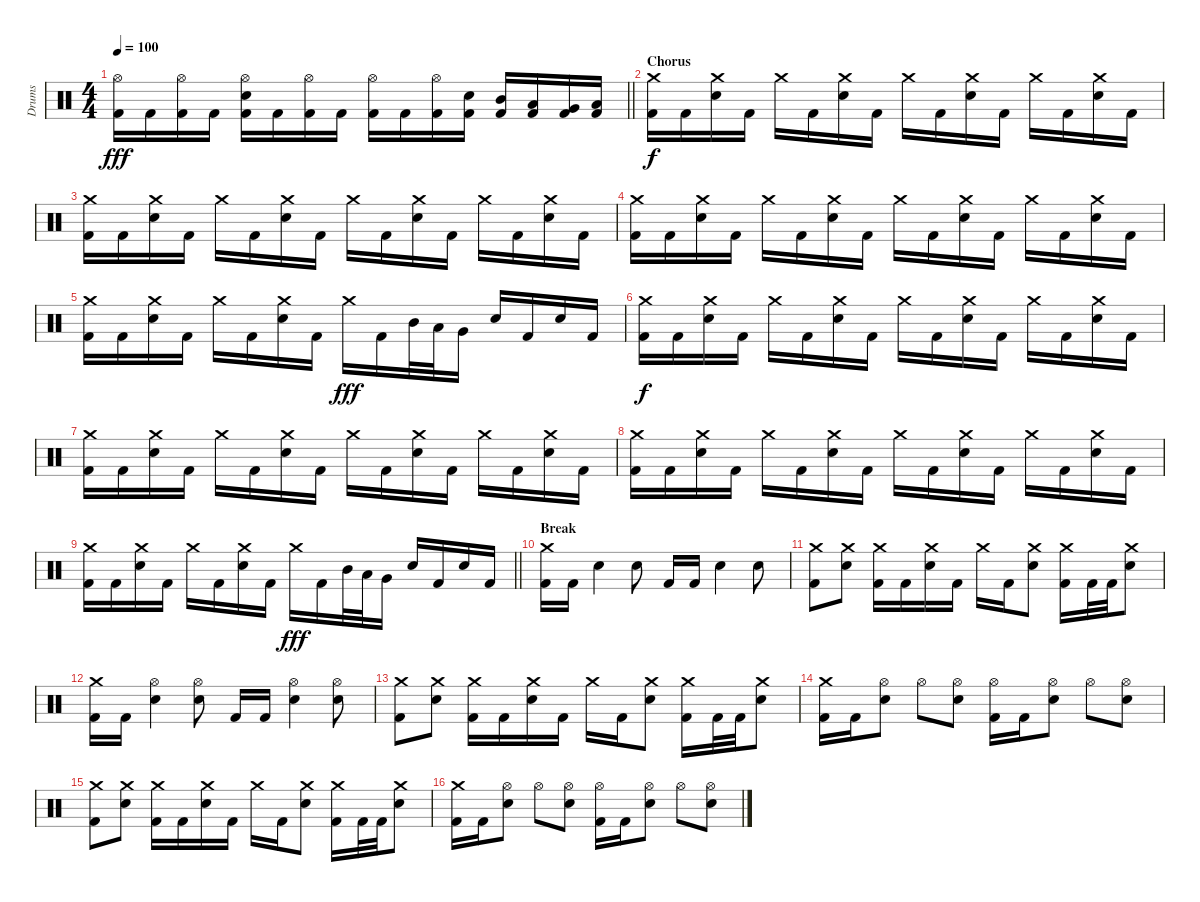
\track ("Drums" "Drums") {instrument percussion}
\staff {score}
\articulation defaults
\ts (4 4)
\tempo 100
\clef neutral
\barLineRight lightlight
\ks c
("Hi-Hat (open)" "Kick (hit) 2").16{dy fff} "Kick (hit) 2".16 ("Hi-Hat (open)" "Kick (hit) 2").16 "Kick (hit) 2".16 ("Hi-Hat (open)" "Electric Snare (hit)" "Kick (hit) 2").16 "Kick (hit) 2".16 ("Hi-Hat (open)" "Kick (hit) 2").16 "Kick (hit) 2".16 ("Hi-Hat (open)" "Kick (hit) 2").16 "Kick (hit) 2".16 ("Hi-Hat (open)" "Kick (hit) 2").16 ("Electric Snare (hit)" "Kick (hit) 2").16 ("Mid Tom (hit)" "Kick (hit) 2").16 ("Low Tom (hit)" "Kick (hit) 2").16 ("Very Low Tom (hit)" "Kick (hit) 2").16 ("Low Floor Tom (hit)" "Kick (hit) 2").16 |
\section ("" "Chorus")
("Crash medium (hit)" "Kick (hit) 2").16{dy f} "Kick (hit) 2".16 ("Crash medium (hit)" "Electric Snare (hit)").16 "Kick (hit) 2".16 "Crash medium (hit)".16 "Kick (hit) 2".16 ("Crash medium (hit)" "Electric Snare (hit)").16 "Kick (hit) 2".16 "Crash medium (hit)".16 "Kick (hit) 2".16 ("Crash medium (hit)" "Electric Snare (hit)").16 "Kick (hit) 2".16 "Crash medium (hit)".16 "Kick (hit) 2".16 ("Crash medium (hit)" "Electric Snare (hit)").16 "Kick (hit) 2".16 |
("Crash medium (hit)" "Kick (hit) 2").16 "Kick (hit) 2".16 ("Crash medium (hit)" "Electric Snare (hit)").16 "Kick (hit) 2".16 "Crash medium (hit)".16 "Kick (hit) 2".16 ("Crash medium (hit)" "Electric Snare (hit)").16 "Kick (hit) 2".16 "Crash medium (hit)".16 "Kick (hit) 2".16 ("Crash medium (hit)" "Electric Snare (hit)").16 "Kick (hit) 2".16 "Crash medium (hit)".16 "Kick (hit) 2".16 ("Crash medium (hit)" "Electric Snare (hit)").16 "Kick (hit) 2".16 |
("Crash medium (hit)" "Kick (hit) 2").16 "Kick (hit) 2".16 ("Crash medium (hit)" "Electric Snare (hit)").16 "Kick (hit) 2".16 "Crash medium (hit)".16 "Kick (hit) 2".16 ("Crash medium (hit)" "Electric Snare (hit)").16 "Kick (hit) 2".16 "Crash medium (hit)".16 "Kick (hit) 2".16 ("Crash medium (hit)" "Electric Snare (hit)").16 "Kick (hit) 2".16 "Crash medium (hit)".16 "Kick (hit) 2".16 ("Crash medium (hit)" "Electric Snare (hit)").16 "Kick (hit) 2".16 |
("Crash medium (hit)" "Kick (hit) 2").16 "Kick (hit) 2".16 ("Crash medium (hit)" "Electric Snare (hit)").16 "Kick (hit) 2".16 "Crash medium (hit)".16 "Kick (hit) 2".16 ("Crash medium (hit)" "Electric Snare (hit)").16 "Kick (hit) 2".16 "Crash medium (hit)".16{dy fff} "Kick (hit) 2".16 "Mid Tom (hit)".32 "Low Tom (hit)".32 "Very Low Tom (hit)".16 "Electric Snare (hit)".16 "Kick (hit) 2".16 "Electric Snare (hit)".16 "Kick (hit) 2".16 |
("Crash medium (hit)" "Kick (hit) 2").16{dy f} "Kick (hit) 2".16 ("Crash medium (hit)" "Electric Snare (hit)").16 "Kick (hit) 2".16 "Crash medium (hit)".16 "Kick (hit) 2".16 ("Crash medium (hit)" "Electric Snare (hit)").16 "Kick (hit) 2".16 "Crash medium (hit)".16 "Kick (hit) 2".16 ("Crash medium (hit)" "Electric Snare (hit)").16 "Kick (hit) 2".16 "Crash medium (hit)".16 "Kick (hit) 2".16 ("Crash medium (hit)" "Electric Snare (hit)").16 "Kick (hit) 2".16 |
("Crash medium (hit)" "Kick (hit) 2").16 "Kick (hit) 2".16 ("Crash medium (hit)" "Electric Snare (hit)").16 "Kick (hit) 2".16 "Crash medium (hit)".16 "Kick (hit) 2".16 ("Crash medium (hit)" "Electric Snare (hit)").16 "Kick (hit) 2".16 "Crash medium (hit)".16 "Kick (hit) 2".16 ("Crash medium (hit)" "Electric Snare (hit)").16 "Kick (hit) 2".16 "Crash medium (hit)".16 "Kick (hit) 2".16 ("Crash medium (hit)" "Electric Snare (hit)").16 "Kick (hit) 2".16 |
("Crash medium (hit)" "Kick (hit) 2").16 "Kick (hit) 2".16 ("Crash medium (hit)" "Electric Snare (hit)").16 "Kick (hit) 2".16 "Crash medium (hit)".16 "Kick (hit) 2".16 ("Crash medium (hit)" "Electric Snare (hit)").16 "Kick (hit) 2".16 "Crash medium (hit)".16 "Kick (hit) 2".16 ("Crash medium (hit)" "Electric Snare (hit)").16 "Kick (hit) 2".16 "Crash medium (hit)".16 "Kick (hit) 2".16 ("Crash medium (hit)" "Electric Snare (hit)").16 "Kick (hit) 2".16 |
\barLineRight lightlight
("Crash medium (hit)" "Kick (hit) 2").16 "Kick (hit) 2".16 ("Crash medium (hit)" "Electric Snare (hit)").16 "Kick (hit) 2".16 "Crash medium (hit)".16 "Kick (hit) 2".16 ("Crash medium (hit)" "Electric Snare (hit)").16 "Kick (hit) 2".16 "Crash medium (hit)".16{dy fff} "Kick (hit) 2".16 "Mid Tom (hit)".32 "Low Tom (hit)".32 "Very Low Tom (hit)".16 "Electric Snare (hit)".16 "Kick (hit) 2".16 "Electric Snare (hit)".16 "Kick (hit) 2".16 |
\section ("" "Break")
("Crash medium (hit)" "Kick (hit) 2").16 "Kick (hit) 2".16 "Electric Snare (hit)".4 "Electric Snare (hit)".8 "Kick (hit) 2".16 "Kick (hit) 2".16 "Electric Snare (hit)".4 "Electric Snare (hit)".8 |
("Crash medium (hit)" "Kick (hit) 2").8 ("Crash medium (hit)" "Electric Snare (hit)").8 ("Crash medium (hit)" "Kick (hit) 2").16 "Kick (hit) 2".16 ("Crash medium (hit)" "Electric Snare (hit)").16 "Kick (hit) 2".16 "Crash medium (hit)".16 "Kick (hit) 2".16 ("Crash medium (hit)" "Electric Snare (hit)").8 ("Crash medium (hit)" "Kick (hit) 2").16 "Kick (hit) 2".32 "Kick (hit) 2".32 ("Crash medium (hit)" "Electric Snare (hit)").8 |
("Crash medium (hit)" "Kick (hit) 2").16 "Kick (hit) 2".16 ("Hi-Hat (open)" "Electric Snare (hit)").4 ("Hi-Hat (open)" "Electric Snare (hit)").8 "Kick (hit) 2".16 "Kick (hit) 2".16 ("Hi-Hat (open)" "Electric Snare (hit)").4 ("Hi-Hat (open)" "Electric Snare (hit)").8 |
("Crash medium (hit)" "Kick (hit) 2").8 ("Crash medium (hit)" "Electric Snare (hit)").8 ("Crash medium (hit)" "Kick (hit) 2").16 "Kick (hit) 2".16 ("Crash medium (hit)" "Electric Snare (hit)").16 "Kick (hit) 2".16 "Crash medium (hit)".16 "Kick (hit) 2".16 ("Crash medium (hit)" "Electric Snare (hit)").8 ("Crash medium (hit)" "Kick (hit) 2").16 "Kick (hit) 2".32 "Kick (hit) 2".32 ("Crash medium (hit)" "Electric Snare (hit)").8 |
("Crash medium (hit)" "Kick (hit) 2").16 "Kick (hit) 2".16 ("Hi-Hat (open)" "Electric Snare (hit)").8 "Hi-Hat (open)".8 ("Hi-Hat (open)" "Electric Snare (hit)").8 ("Hi-Hat (open)" "Kick (hit) 2").16 "Kick (hit) 2".16 ("Hi-Hat (open)" "Electric Snare (hit)").8 "Hi-Hat (open)".8 ("Hi-Hat (open)" "Electric Snare (hit)").8 |
("Crash medium (hit)" "Kick (hit) 2").8 ("Crash medium (hit)" "Electric Snare (hit)").8 ("Crash medium (hit)" "Kick (hit) 2").16 "Kick (hit) 2".16 ("Crash medium (hit)" "Electric Snare (hit)").16 "Kick (hit) 2".16 "Crash medium (hit)".16 "Kick (hit) 2".16 ("Crash medium (hit)" "Electric Snare (hit)").8 ("Crash medium (hit)" "Kick (hit) 2").16 "Kick (hit) 2".32 "Kick (hit) 2".32 ("Crash medium (hit)" "Electric Snare (hit)").8 |
("Crash medium (hit)" "Kick (hit) 2").16 "Kick (hit) 2".16 ("Hi-Hat (open)" "Electric Snare (hit)").8 "Hi-Hat (open)".8 ("Hi-Hat (open)" "Electric Snare (hit)").8 ("Hi-Hat (open)" "Kick (hit) 2").16 "Kick (hit) 2".16 ("Hi-Hat (open)" "Electric Snare (hit)").8 "Hi-Hat (open)".8 ("Hi-Hat (open)" "Electric Snare (hit)").8
